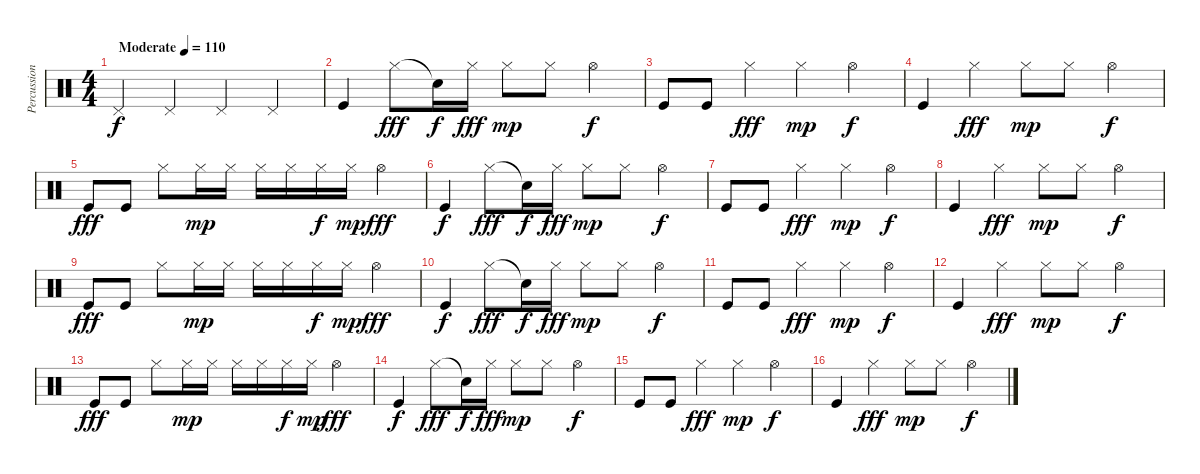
\track ("Percussions" "Percussion") {instrument percussion}
\staff {score}
\articulation defaults
\ts (4 4)
\tempo (110 "Moderate")
\clef neutral
\ks c "Pedal Hi-Hat (hit)".4{dy f} "Pedal Hi-Hat (hit)".4 "Pedal Hi-Hat (hit)".4 "Pedal Hi-Hat (hit)".4
|
"Kick (hit)".4 "Hi-Hat (closed)".8{dy fff} "Snare (hit)"{t}.16{dy f} "Hi-Hat (closed)".16{dy fff} "Hi-Hat (closed)".8{dy mp} "Hi-Hat (closed)".8 "Hi-Hat (open)".4{dy f} |
"Kick (hit)".8 "Kick (hit)".8 "Hi-Hat (closed)".4{dy fff} "Hi-Hat (closed)".4{dy mp} "Hi-Hat (open)".4{dy f} |
"Kick (hit)".4 "Hi-Hat (closed)".4{dy fff} "Hi-Hat (closed)".8{dy mp} "Hi-Hat (closed)".8 "Hi-Hat (open)".4{dy f} |
"Kick (hit)".8{dy fff} "Kick (hit)".8 "Hi-Hat (closed)".8 "Hi-Hat (closed)".16{dy mp} "Hi-Hat (closed)".16 "Hi-Hat (closed)".16 "Hi-Hat (closed)".16 "Hi-Hat (closed)".16{dy f} "Hi-Hat (closed)".16{dy mp} "Hi-Hat (open)".4{dy fff} |
"Kick (hit)".4{dy f} "Hi-Hat (closed)".8{dy fff} "Snare (hit)"{t}.16{dy f} "Hi-Hat (closed)".16{dy fff} "Hi-Hat (closed)".8{dy mp} "Hi-Hat (closed)".8 "Hi-Hat (open)".4{dy f} |
"Kick (hit)".8 "Kick (hit)".8 "Hi-Hat (closed)".4{dy fff} "Hi-Hat (closed)".4{dy mp} "Hi-Hat (open)".4{dy f} |
"Kick (hit)".4 "Hi-Hat (closed)".4{dy fff} "Hi-Hat (closed)".8{dy mp} "Hi-Hat (closed)".8 "Hi-Hat (open)".4{dy f} |
"Kick (hit)".8{dy fff} "Kick (hit)".8 "Hi-Hat (closed)".8 "Hi-Hat (closed)".16{dy mp} "Hi-Hat (closed)".16 "Hi-Hat (closed)".16 "Hi-Hat (closed)".16 "Hi-Hat (closed)".16{dy f} "Hi-Hat (closed)".16{dy mp} "Hi-Hat (open)".4{dy fff} |
"Kick (hit)".4{dy f} "Hi-Hat (closed)".8{dy fff} "Snare (hit)"{t}.16{dy f} "Hi-Hat (closed)".16{dy fff} "Hi-Hat (closed)".8{dy mp} "Hi-Hat (closed)".8 "Hi-Hat (open)".4{dy f} |
"Kick (hit)".8 "Kick (hit)".8 "Hi-Hat (closed)".4{dy fff} "Hi-Hat (closed)".4{dy mp} "Hi-Hat (open)".4{dy f} |
"Kick (hit)".4 "Hi-Hat (closed)".4{dy fff} "Hi-Hat (closed)".8{dy mp} "Hi-Hat (closed)".8 "Hi-Hat (open)".4{dy f} |
"Kick (hit)".8{dy fff} "Kick (hit)".8 "Hi-Hat (closed)".8 "Hi-Hat (closed)".16{dy mp} "Hi-Hat (closed)".16 "Hi-Hat (closed)".16 "Hi-Hat (closed)".16 "Hi-Hat (closed)".16{dy f} "Hi-Hat (closed)".16{dy mp} "Hi-Hat (open)".4{dy fff} |
"Kick (hit)".4{dy f} "Hi-Hat (closed)".8{dy fff} "Snare (hit)"{t}.16{dy f} "Hi-Hat (closed)".16{dy fff} "Hi-Hat (closed)".8{dy mp} "Hi-Hat (closed)".8 "Hi-Hat (open)".4{dy f} |
"Kick (hit)".8 "Kick (hit)".8 "Hi-Hat (closed)".4{dy fff} "Hi-Hat (closed)".4{dy mp} "Hi-Hat (open)".4{dy f} |
"Kick (hit)".4 "Hi-Hat (closed)".4{dy fff} "Hi-Hat (closed)".8{dy mp} "Hi-Hat (closed)".8 "Hi-Hat (open)".4{dy f}
